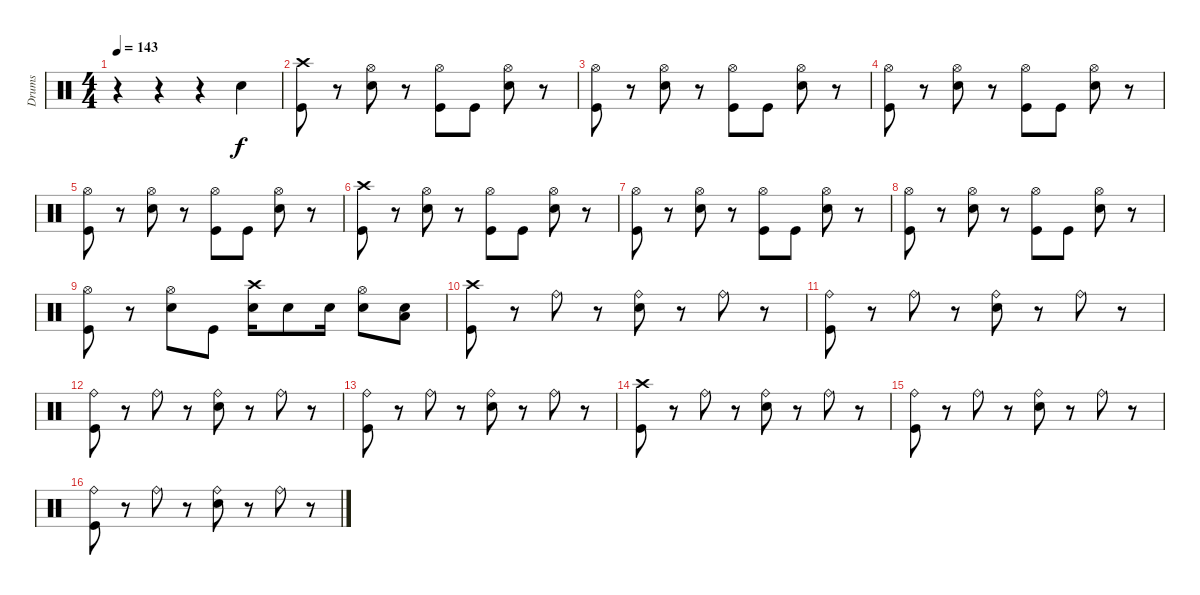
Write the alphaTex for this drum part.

\track ("Drums" "Drums") {instrument percussion}
\staff {score}
\articulation defaults
\ts (4 4)
\tempo 143
\clef neutral
\ks c
r.4{dy f} r.4 r.4 "Electric Snare (hit)".4 |
("Crash high (hit)" "Kick (hit)").8 r.8 ("Hi-Hat (open)" "Electric Snare (hit)").8 r.8 ("Hi-Hat (open)" "Kick (hit)").8 "Kick (hit)".8 ("Hi-Hat (open)" "Electric Snare (hit)").8 r.8 |
("Hi-Hat (open)" "Kick (hit)").8 r.8 ("Hi-Hat (open)" "Electric Snare (hit)").8 r.8 ("Hi-Hat (open)" "Kick (hit)").8 "Kick (hit)".8 ("Hi-Hat (open)" "Electric Snare (hit)").8 r.8 |
("Hi-Hat (open)" "Kick (hit)").8 r.8 ("Hi-Hat (open)" "Electric Snare (hit)").8 r.8 ("Hi-Hat (open)" "Kick (hit)").8 "Kick (hit)".8 ("Hi-Hat (open)" "Electric Snare (hit)").8 r.8 |
("Hi-Hat (open)" "Kick (hit)").8 r.8 ("Hi-Hat (open)" "Electric Snare (hit)").8 r.8 ("Hi-Hat (open)" "Kick (hit)").8 "Kick (hit)".8 ("Hi-Hat (open)" "Electric Snare (hit)").8 r.8 |
("Crash high (hit)" "Kick (hit)").8 r.8 ("Hi-Hat (open)" "Electric Snare (hit)").8 r.8 ("Hi-Hat (open)" "Kick (hit)").8 "Kick (hit)".8 ("Hi-Hat (open)" "Electric Snare (hit)").8 r.8 |
("Hi-Hat (open)" "Kick (hit)").8 r.8 ("Hi-Hat (open)" "Electric Snare (hit)").8 r.8 ("Hi-Hat (open)" "Kick (hit)").8 "Kick (hit)".8 ("Hi-Hat (open)" "Electric Snare (hit)").8 r.8 |
("Hi-Hat (open)" "Kick (hit)").8 r.8 ("Hi-Hat (open)" "Electric Snare (hit)").8 r.8 ("Hi-Hat (open)" "Kick (hit)").8 "Kick (hit)".8 ("Hi-Hat (open)" "Electric Snare (hit)").8 r.8 |
("Hi-Hat (open)" "Kick (hit)").8 r.8 ("Hi-Hat (open)" "Electric Snare (hit)").8 "Kick (hit)".8 ("Crash high (hit)" "Electric Snare (hit)").16 "Electric Snare (hit)".8 "Electric Snare (hit)".16 ("Hi-Hat (open)" "Electric Snare (hit)").8 ("Electric Snare (hit)" "Low Tom (hit)").8 |
("Crash high (hit)" "Kick (hit)").8 r.8 "Ride (bell)".8 r.8 ("Ride (bell)" "Electric Snare (hit)").8 r.8 "Ride (bell)".8 r.8 |
("Ride (bell)" "Kick (hit)").8 r.8 "Ride (bell)".8 r.8 ("Ride (bell)" "Electric Snare (hit)").8 r.8 "Ride (bell)".8 r.8 |
("Ride (bell)" "Kick (hit)").8 r.8 "Ride (bell)".8 r.8 ("Ride (bell)" "Electric Snare (hit)").8 r.8 "Ride (bell)".8 r.8 |
("Ride (bell)" "Kick (hit)").8 r.8 "Ride (bell)".8 r.8 ("Ride (bell)" "Electric Snare (hit)").8 r.8 "Ride (bell)".8 r.8 |
("Crash high (hit)" "Kick (hit)").8 r.8 "Ride (bell)".8 r.8 ("Ride (bell)" "Electric Snare (hit)").8 r.8 "Ride (bell)".8 r.8 |
("Ride (bell)" "Kick (hit)").8 r.8 "Ride (bell)".8 r.8 ("Ride (bell)" "Electric Snare (hit)").8 r.8 "Ride (bell)".8 r.8 |
("Ride (bell)" "Kick (hit)").8 r.8 "Ride (bell)".8 r.8 ("Ride (bell)" "Electric Snare (hit)").8 r.8 "Ride (bell)".8 r.8
